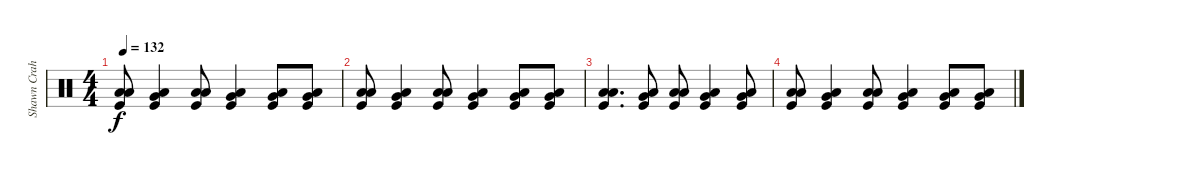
\track ("Shawn Crahan" "Shawn Crah") {instrument percussion}
\staff {score}
\articulation defaults
\ts (4 4)
\tempo 132
\clef neutral
\ks c
("Low Floor Tom (hit)" "Kick (hit)" "Low Tom (hit)").8{dy f} ("Low Floor Tom (hit)" "Kick (hit)" "Very Low Tom (hit)").4 ("Low Floor Tom (hit)" "Kick (hit)" "Low Tom (hit)").8 ("Low Floor Tom (hit)" "Kick (hit)" "Very Low Tom (hit)").4 ("Low Floor Tom (hit)" "Kick (hit)" "Very Low Tom (hit)").8 ("Low Floor Tom (hit)" "Kick (hit)" "Very Low Tom (hit)").8 |
("Low Floor Tom (hit)" "Kick (hit)" "Low Tom (hit)").8 ("Low Floor Tom (hit)" "Kick (hit)" "Very Low Tom (hit)").4 ("Low Floor Tom (hit)" "Kick (hit)" "Low Tom (hit)").8 ("Low Floor Tom (hit)" "Kick (hit)" "Very Low Tom (hit)").4 ("Low Floor Tom (hit)" "Kick (hit)" "Very Low Tom (hit)").8 ("Low Floor Tom (hit)" "Kick (hit)" "Very Low Tom (hit)").8 |
("Low Floor Tom (hit)" "Kick (hit)" "Low Tom (hit)").4{d} ("Low Floor Tom (hit)" "Kick (hit)" "Very Low Tom (hit)").8 ("Low Floor Tom (hit)" "Kick (hit)" "Low Tom (hit)").8 ("Low Floor Tom (hit)" "Kick (hit)" "Very Low Tom (hit)").4 ("Low Floor Tom (hit)" "Kick (hit)" "Very Low Tom (hit)").8 |
("Low Floor Tom (hit)" "Kick (hit)" "Low Tom (hit)").8 ("Low Floor Tom (hit)" "Kick (hit)" "Very Low Tom (hit)").4 ("Low Floor Tom (hit)" "Kick (hit)" "Low Tom (hit)").8 ("Low Floor Tom (hit)" "Kick (hit)" "Very Low Tom (hit)").4 ("Low Floor Tom (hit)" "Kick (hit)" "Very Low Tom (hit)").8 ("Low Floor Tom (hit)" "Kick (hit)" "Very Low Tom (hit)").8
